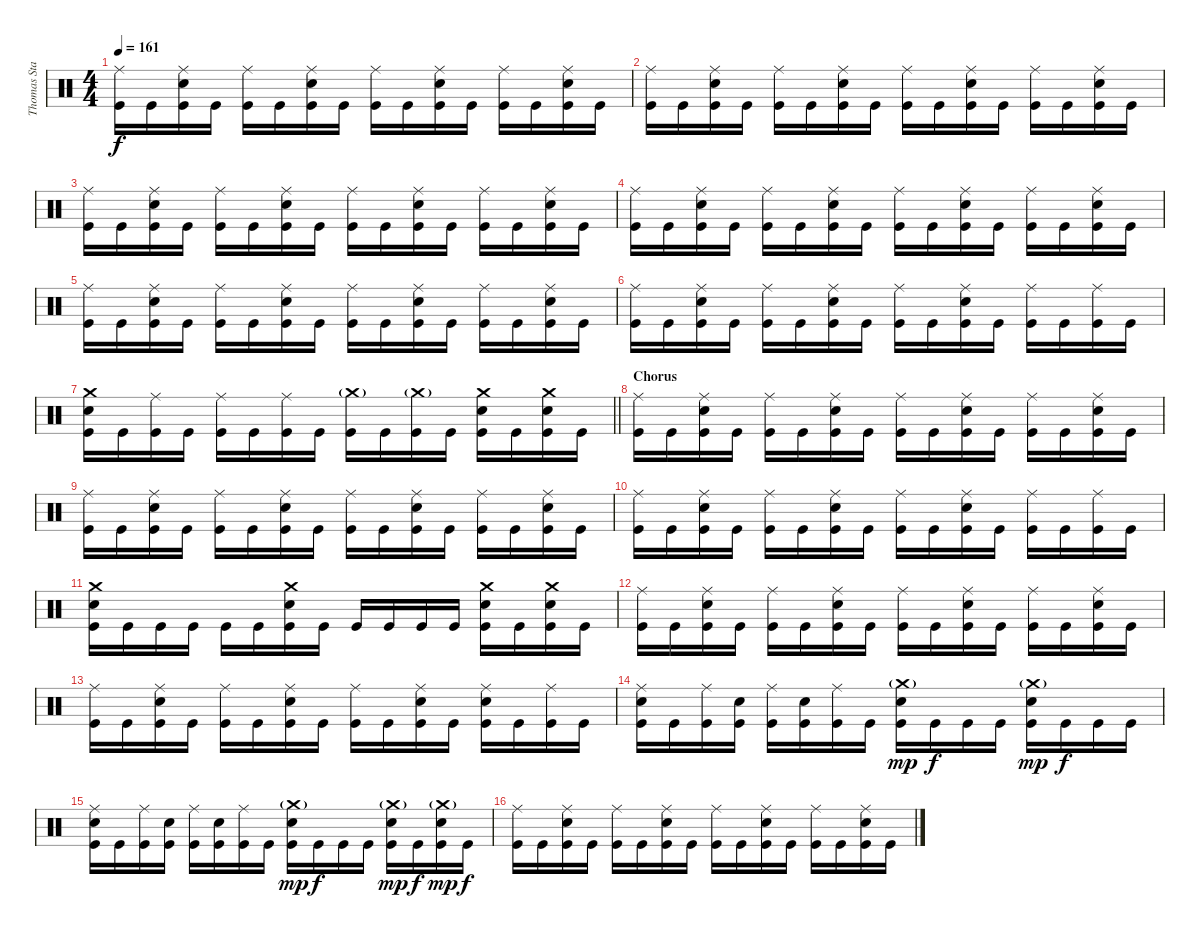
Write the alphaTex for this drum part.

\track ("Thomas Stauch" "Thomas Sta") {instrument percussion}
\staff {score}
\articulation defaults
\ts (4 4)
\tempo 161
\clef neutral
\ks c
("Ride (middle)" "Kick (hit)").16{dy f} "Kick (hit)".16 ("Ride (middle)" "Electric Snare (hit)" "Kick (hit)").16 "Kick (hit)".16 ("Ride (middle)" "Kick (hit)").16 "Kick (hit)".16 ("Ride (middle)" "Electric Snare (hit)" "Kick (hit)").16 "Kick (hit)".16 ("Ride (middle)" "Kick (hit)").16 "Kick (hit)".16 ("Ride (middle)" "Electric Snare (hit)" "Kick (hit)").16 "Kick (hit)".16 ("Ride (middle)" "Kick (hit)").16 "Kick (hit)".16 ("Ride (middle)" "Electric Snare (hit)" "Kick (hit)").16 "Kick (hit)".16 |
("Ride (middle)" "Kick (hit)").16 "Kick (hit)".16 ("Ride (middle)" "Electric Snare (hit)" "Kick (hit)").16 "Kick (hit)".16 ("Ride (middle)" "Kick (hit)").16 "Kick (hit)".16 ("Ride (middle)" "Electric Snare (hit)" "Kick (hit)").16 "Kick (hit)".16 ("Ride (middle)" "Kick (hit)").16 "Kick (hit)".16 ("Ride (middle)" "Electric Snare (hit)" "Kick (hit)").16 "Kick (hit)".16 ("Ride (middle)" "Kick (hit)").16 "Kick (hit)".16 ("Ride (middle)" "Electric Snare (hit)" "Kick (hit)").16 "Kick (hit)".16 |
("Ride (middle)" "Kick (hit)").16 "Kick (hit)".16 ("Ride (middle)" "Electric Snare (hit)" "Kick (hit)").16 "Kick (hit)".16 ("Ride (middle)" "Kick (hit)").16 "Kick (hit)".16 ("Ride (middle)" "Electric Snare (hit)" "Kick (hit)").16 "Kick (hit)".16 ("Ride (middle)" "Kick (hit)").16 "Kick (hit)".16 ("Ride (middle)" "Electric Snare (hit)" "Kick (hit)").16 "Kick (hit)".16 ("Ride (middle)" "Kick (hit)").16 "Kick (hit)".16 ("Ride (middle)" "Electric Snare (hit)" "Kick (hit)").16 "Kick (hit)".16 |
("Ride (middle)" "Kick (hit)").16 "Kick (hit)".16 ("Ride (middle)" "Electric Snare (hit)" "Kick (hit)").16 "Kick (hit)".16 ("Ride (middle)" "Kick (hit)").16 "Kick (hit)".16 ("Ride (middle)" "Electric Snare (hit)" "Kick (hit)").16 "Kick (hit)".16 ("Ride (middle)" "Kick (hit)").16 "Kick (hit)".16 ("Ride (middle)" "Electric Snare (hit)" "Kick (hit)").16 "Kick (hit)".16 ("Ride (middle)" "Kick (hit)").16 "Kick (hit)".16 ("Ride (middle)" "Electric Snare (hit)" "Kick (hit)").16 "Kick (hit)".16 |
("Ride (middle)" "Kick (hit)").16 "Kick (hit)".16 ("Ride (middle)" "Electric Snare (hit)" "Kick (hit)").16 "Kick (hit)".16 ("Ride (middle)" "Kick (hit)").16 "Kick (hit)".16 ("Ride (middle)" "Electric Snare (hit)" "Kick (hit)").16 "Kick (hit)".16 ("Ride (middle)" "Kick (hit)").16 "Kick (hit)".16 ("Ride (middle)" "Electric Snare (hit)" "Kick (hit)").16 "Kick (hit)".16 ("Ride (middle)" "Kick (hit)").16 "Kick (hit)".16 ("Ride (middle)" "Electric Snare (hit)" "Kick (hit)").16 "Kick (hit)".16 |
("Ride (middle)" "Kick (hit)").16 "Kick (hit)".16 ("Ride (middle)" "Electric Snare (hit)" "Kick (hit)").16 "Kick (hit)".16 ("Ride (middle)" "Kick (hit)").16 "Kick (hit)".16 ("Ride (middle)" "Electric Snare (hit)" "Kick (hit)").16 "Kick (hit)".16 ("Ride (middle)" "Kick (hit)").16 "Kick (hit)".16 ("Ride (middle)" "Electric Snare (hit)" "Kick (hit)").16 "Kick (hit)".16 ("Ride (middle)" "Kick (hit)").16 "Kick (hit)".16 ("Ride (middle)" "Kick (hit)").16 "Kick (hit)".16 |
\barLineRight lightlight
("Crash medium (hit)" "Electric Snare (hit)" "Kick (hit)").16 "Kick (hit)".16 ("Ride (middle)" "Kick (hit)").16 "Kick (hit)".16 ("Ride (middle)" "Kick (hit)").16 "Kick (hit)".16 ("Ride (middle)" "Kick (hit)").16 "Kick (hit)".16 ("Crash medium (hit)"{g} "Kick (hit)").16 "Kick (hit)".16 ("Crash medium (hit)"{g} "Kick (hit)").16 "Kick (hit)".16 ("Crash medium (hit)" "Electric Snare (hit)" "Kick (hit)").16 "Kick (hit)".16 ("Crash medium (hit)" "Electric Snare (hit)" "Kick (hit)").16 "Kick (hit)".16 |
\section ("" "Chorus")
("Ride (middle)" "Kick (hit)").16 "Kick (hit)".16 ("Ride (middle)" "Electric Snare (hit)" "Kick (hit)").16 "Kick (hit)".16 ("Ride (middle)" "Kick (hit)").16 "Kick (hit)".16 ("Ride (middle)" "Electric Snare (hit)" "Kick (hit)").16 "Kick (hit)".16 ("Ride (middle)" "Kick (hit)").16 "Kick (hit)".16 ("Ride (middle)" "Electric Snare (hit)" "Kick (hit)").16 "Kick (hit)".16 ("Ride (middle)" "Kick (hit)").16 "Kick (hit)".16 ("Ride (middle)" "Electric Snare (hit)" "Kick (hit)").16 "Kick (hit)".16 |
("Ride (middle)" "Kick (hit)").16 "Kick (hit)".16 ("Ride (middle)" "Electric Snare (hit)" "Kick (hit)").16 "Kick (hit)".16 ("Ride (middle)" "Kick (hit)").16 "Kick (hit)".16 ("Ride (middle)" "Electric Snare (hit)" "Kick (hit)").16 "Kick (hit)".16 ("Ride (middle)" "Kick (hit)").16 "Kick (hit)".16 ("Ride (middle)" "Electric Snare (hit)" "Kick (hit)").16 "Kick (hit)".16 ("Ride (middle)" "Kick (hit)").16 "Kick (hit)".16 ("Ride (middle)" "Electric Snare (hit)" "Kick (hit)").16 "Kick (hit)".16 |
("Ride (middle)" "Kick (hit)").16 "Kick (hit)".16 ("Ride (middle)" "Electric Snare (hit)" "Kick (hit)").16 "Kick (hit)".16 ("Ride (middle)" "Kick (hit)").16 "Kick (hit)".16 ("Ride (middle)" "Electric Snare (hit)" "Kick (hit)").16 "Kick (hit)".16 ("Ride (middle)" "Kick (hit)").16 "Kick (hit)".16 ("Ride (middle)" "Electric Snare (hit)" "Kick (hit)").16 "Kick (hit)".16 ("Ride (middle)" "Kick (hit)").16 "Kick (hit)".16 ("Ride (middle)" "Kick (hit)").16 "Kick (hit)".16 |
("Crash medium (hit)" "Electric Snare (hit)" "Kick (hit)").16 "Kick (hit)".16 "Kick (hit)".16 "Kick (hit)".16 "Kick (hit)".16 "Kick (hit)".16 ("Crash medium (hit)" "Electric Snare (hit)" "Kick (hit)").16 "Kick (hit)".16 "Kick (hit)".16 "Kick (hit)".16 "Kick (hit)".16 "Kick (hit)".16 ("Crash medium (hit)" "Electric Snare (hit)" "Kick (hit)").16 "Kick (hit)".16 ("Crash medium (hit)" "Electric Snare (hit)" "Kick (hit)").16 "Kick (hit)".16 |
("Ride (middle)" "Kick (hit)").16 "Kick (hit)".16 ("Ride (middle)" "Electric Snare (hit)" "Kick (hit)").16 "Kick (hit)".16 ("Ride (middle)" "Kick (hit)").16 "Kick (hit)".16 ("Ride (middle)" "Electric Snare (hit)" "Kick (hit)").16 "Kick (hit)".16 ("Ride (middle)" "Kick (hit)").16 "Kick (hit)".16 ("Ride (middle)" "Electric Snare (hit)" "Kick (hit)").16 "Kick (hit)".16 ("Ride (middle)" "Kick (hit)").16 "Kick (hit)".16 ("Ride (middle)" "Electric Snare (hit)" "Kick (hit)").16 "Kick (hit)".16 |
("Ride (middle)" "Kick (hit)").16 "Kick (hit)".16 ("Ride (middle)" "Electric Snare (hit)" "Kick (hit)").16 "Kick (hit)".16 ("Ride (middle)" "Kick (hit)").16 "Kick (hit)".16 ("Ride (middle)" "Electric Snare (hit)" "Kick (hit)").16 "Kick (hit)".16 ("Ride (middle)" "Kick (hit)").16 "Kick (hit)".16 ("Ride (middle)" "Electric Snare (hit)" "Kick (hit)").16 "Kick (hit)".16 ("Ride (middle)" "Electric Snare (hit)" "Kick (hit)").16 "Kick (hit)".16 ("Ride (middle)" "Kick (hit)").16 "Kick (hit)".16 |
("Ride (middle)" "Electric Snare (hit)" "Kick (hit)").16 "Kick (hit)".16 ("Ride (middle)" "Kick (hit)").16 ("Electric Snare (hit)" "Kick (hit)").16 ("Ride (middle)" "Kick (hit)").16 ("Electric Snare (hit)" "Kick (hit)").16 ("Ride (middle)" "Kick (hit)").16 "Kick (hit)".16 ("Crash medium (hit)"{g} "Electric Snare (hit)" "Kick (hit)").16{dy mp} "Kick (hit)".16{dy f} "Kick (hit)".16 "Kick (hit)".16 ("Crash medium (hit)"{g} "Electric Snare (hit)" "Kick (hit)").16{dy mp} "Kick (hit)".16{dy f} "Kick (hit)".16 "Kick (hit)".16 |
("Ride (middle)" "Electric Snare (hit)" "Kick (hit)").16 "Kick (hit)".16 ("Ride (middle)" "Kick (hit)").16 ("Electric Snare (hit)" "Kick (hit)").16 ("Ride (middle)" "Kick (hit)").16 ("Electric Snare (hit)" "Kick (hit)").16 ("Ride (middle)" "Kick (hit)").16 "Kick (hit)".16 ("Crash medium (hit)"{g} "Electric Snare (hit)" "Kick (hit)").16{dy mp} "Kick (hit)".16{dy f} "Kick (hit)".16 "Kick (hit)".16 ("Crash medium (hit)"{g} "Electric Snare (hit)" "Kick (hit)").16{dy mp} "Kick (hit)".16{dy f} ("Crash medium (hit)"{g} "Electric Snare (hit)" "Kick (hit)").16{dy mp} "Kick (hit)".16{dy f} |
("Ride (middle)" "Kick (hit)").16 "Kick (hit)".16 ("Ride (middle)" "Electric Snare (hit)" "Kick (hit)").16 "Kick (hit)".16 ("Ride (middle)" "Kick (hit)").16 "Kick (hit)".16 ("Ride (middle)" "Electric Snare (hit)" "Kick (hit)").16 "Kick (hit)".16 ("Ride (middle)" "Kick (hit)").16 "Kick (hit)".16 ("Ride (middle)" "Electric Snare (hit)" "Kick (hit)").16 "Kick (hit)".16 ("Ride (middle)" "Kick (hit)").16 "Kick (hit)".16 ("Ride (middle)" "Electric Snare (hit)" "Kick (hit)").16 "Kick (hit)".16
